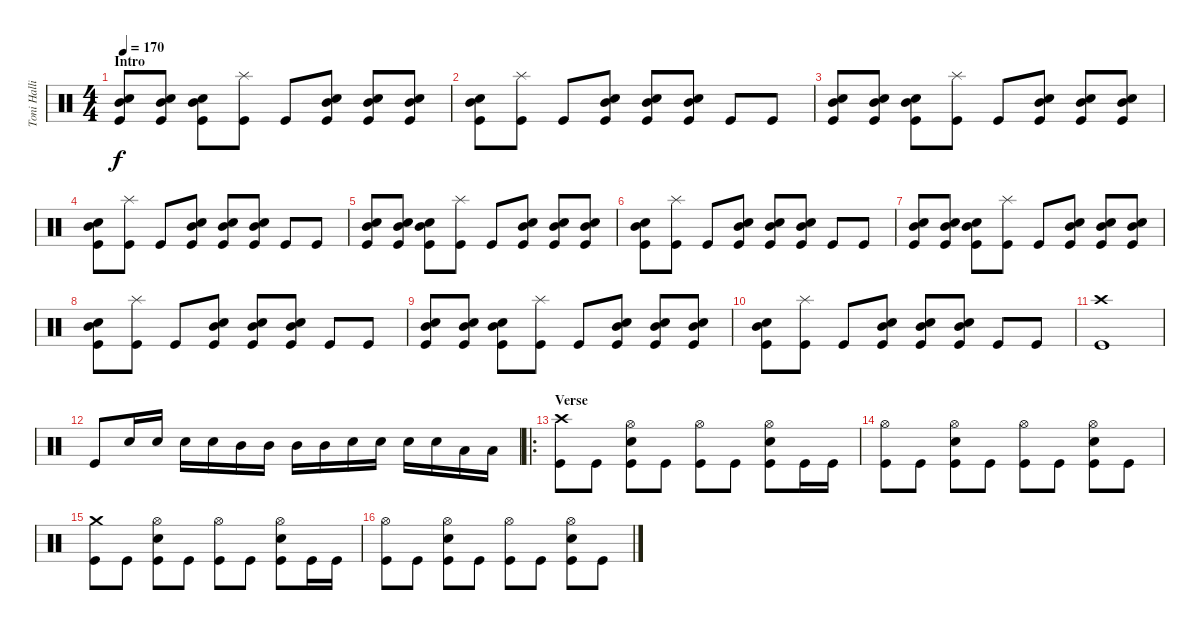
\track ("Toni Hallio" "Toni Halli") {instrument percussion}
\staff {score}
\articulation defaults
\ts (4 4)
\section ("" "Intro")
\tempo 170
\clef neutral
\ks c
("Mid Tom (hit)" "Snare (hit) 2" "Kick (hit)").8{dy f} ("Mid Tom (hit)" "Snare (hit) 2" "Kick (hit)").8 ("Mid Tom (hit)" "Snare (hit) 2" "Kick (hit)").8 ("Splash (hit)" "Kick (hit)").8 "Kick (hit)".8 ("Mid Tom (hit)" "Snare (hit) 2" "Kick (hit)").8 ("Mid Tom (hit)" "Snare (hit) 2" "Kick (hit)").8 ("Mid Tom (hit)" "Snare (hit) 2" "Kick (hit)").8 |
("Mid Tom (hit)" "Snare (hit) 2" "Kick (hit)").8 ("Splash (hit)" "Kick (hit)").8 "Kick (hit)".8 ("Mid Tom (hit)" "Snare (hit) 2" "Kick (hit)").8 ("Mid Tom (hit)" "Snare (hit) 2" "Kick (hit)").8 ("Mid Tom (hit)" "Snare (hit) 2" "Kick (hit)").8 "Kick (hit)".8 "Kick (hit)".8 |
("Mid Tom (hit)" "Snare (hit) 2" "Kick (hit)").8 ("Mid Tom (hit)" "Snare (hit) 2" "Kick (hit)").8 ("Mid Tom (hit)" "Snare (hit) 2" "Kick (hit)").8 ("Splash (hit)" "Kick (hit)").8 "Kick (hit)".8 ("Mid Tom (hit)" "Snare (hit) 2" "Kick (hit)").8 ("Mid Tom (hit)" "Snare (hit) 2" "Kick (hit)").8 ("Mid Tom (hit)" "Snare (hit) 2" "Kick (hit)").8 |
("Mid Tom (hit)" "Snare (hit) 2" "Kick (hit)").8 ("Splash (hit)" "Kick (hit)").8 "Kick (hit)".8 ("Mid Tom (hit)" "Snare (hit) 2" "Kick (hit)").8 ("Mid Tom (hit)" "Snare (hit) 2" "Kick (hit)").8 ("Mid Tom (hit)" "Snare (hit) 2" "Kick (hit)").8 "Kick (hit)".8 "Kick (hit)".8 |
("Mid Tom (hit)" "Snare (hit) 2" "Kick (hit)").8 ("Mid Tom (hit)" "Snare (hit) 2" "Kick (hit)").8 ("Mid Tom (hit)" "Snare (hit) 2" "Kick (hit)").8 ("Splash (hit)" "Kick (hit)").8 "Kick (hit)".8 ("Mid Tom (hit)" "Snare (hit) 2" "Kick (hit)").8 ("Mid Tom (hit)" "Snare (hit) 2" "Kick (hit)").8 ("Mid Tom (hit)" "Snare (hit) 2" "Kick (hit)").8 |
("Mid Tom (hit)" "Snare (hit) 2" "Kick (hit)").8 ("Splash (hit)" "Kick (hit)").8 "Kick (hit)".8 ("Mid Tom (hit)" "Snare (hit) 2" "Kick (hit)").8 ("Mid Tom (hit)" "Snare (hit) 2" "Kick (hit)").8 ("Mid Tom (hit)" "Snare (hit) 2" "Kick (hit)").8 "Kick (hit)".8 "Kick (hit)".8 |
("Mid Tom (hit)" "Snare (hit) 2" "Kick (hit)").8 ("Mid Tom (hit)" "Snare (hit) 2" "Kick (hit)").8 ("Mid Tom (hit)" "Snare (hit) 2" "Kick (hit)").8 ("Splash (hit)" "Kick (hit)").8 "Kick (hit)".8 ("Mid Tom (hit)" "Snare (hit) 2" "Kick (hit)").8 ("Mid Tom (hit)" "Snare (hit) 2" "Kick (hit)").8 ("Mid Tom (hit)" "Snare (hit) 2" "Kick (hit)").8 |
("Mid Tom (hit)" "Snare (hit) 2" "Kick (hit)").8 ("Splash (hit)" "Kick (hit)").8 "Kick (hit)".8 ("Mid Tom (hit)" "Snare (hit) 2" "Kick (hit)").8 ("Mid Tom (hit)" "Snare (hit) 2" "Kick (hit)").8 ("Mid Tom (hit)" "Snare (hit) 2" "Kick (hit)").8 "Kick (hit)".8 "Kick (hit)".8 |
("Mid Tom (hit)" "Snare (hit) 2" "Kick (hit)").8 ("Mid Tom (hit)" "Snare (hit) 2" "Kick (hit)").8 ("Mid Tom (hit)" "Snare (hit) 2" "Kick (hit)").8 ("Splash (hit)" "Kick (hit)").8 "Kick (hit)".8 ("Mid Tom (hit)" "Snare (hit) 2" "Kick (hit)").8 ("Mid Tom (hit)" "Snare (hit) 2" "Kick (hit)").8 ("Mid Tom (hit)" "Snare (hit) 2" "Kick (hit)").8 |
("Mid Tom (hit)" "Snare (hit) 2" "Kick (hit)").8 ("Splash (hit)" "Kick (hit)").8 "Kick (hit)".8 ("Mid Tom (hit)" "Snare (hit) 2" "Kick (hit)").8 ("Mid Tom (hit)" "Snare (hit) 2" "Kick (hit)").8 ("Mid Tom (hit)" "Snare (hit) 2" "Kick (hit)").8 "Kick (hit)".8 "Kick (hit)".8 |
("Crash high (hit)" "Kick (hit)").1 |
"Kick (hit)".8 "Snare (hit) 2".16 "Snare (hit) 2".16 "Snare (hit) 2".16 "Snare (hit) 2".16 "Mid Tom (hit)".16 "Mid Tom (hit)".16 "Mid Tom (hit)".16 "Mid Tom (hit)".16 "Snare (hit) 2".16 "Snare (hit) 2".16 "Snare (hit) 2".16 "Snare (hit) 2".16 "Low Tom (hit)".16 "Low Tom (hit)".16 |
\ro
\section ("" "Verse")
("Crash high (hit)" "Kick (hit)").8 "Kick (hit)".8 ("Hi-Hat (open)" "Snare (hit) 2" "Kick (hit)").8 "Kick (hit)".8 ("Hi-Hat (open)" "Kick (hit)").8 "Kick (hit)".8 ("Hi-Hat (open)" "Snare (hit) 2" "Kick (hit)").8 "Kick (hit)".16 "Kick (hit)".16 |
("Hi-Hat (open)" "Kick (hit)").8 "Kick (hit)".8 ("Hi-Hat (open)" "Snare (hit) 2" "Kick (hit)").8 "Kick (hit)".8 ("Hi-Hat (open)" "Kick (hit)").8 "Kick (hit)".8 ("Hi-Hat (open)" "Snare (hit) 2" "Kick (hit)").8 "Kick (hit)".8 |
("Crash medium (hit)" "Kick (hit)").8 "Kick (hit)".8 ("Hi-Hat (open)" "Snare (hit) 2" "Kick (hit)").8 "Kick (hit)".8 ("Hi-Hat (open)" "Kick (hit)").8 "Kick (hit)".8 ("Hi-Hat (open)" "Snare (hit) 2" "Kick (hit)").8 "Kick (hit)".16 "Kick (hit)".16 |
("Hi-Hat (open)" "Kick (hit)").8 "Kick (hit)".8 ("Hi-Hat (open)" "Snare (hit) 2" "Kick (hit)").8 "Kick (hit)".8 ("Hi-Hat (open)" "Kick (hit)").8 "Kick (hit)".8 ("Hi-Hat (open)" "Snare (hit) 2" "Kick (hit)").8 "Kick (hit)".8
